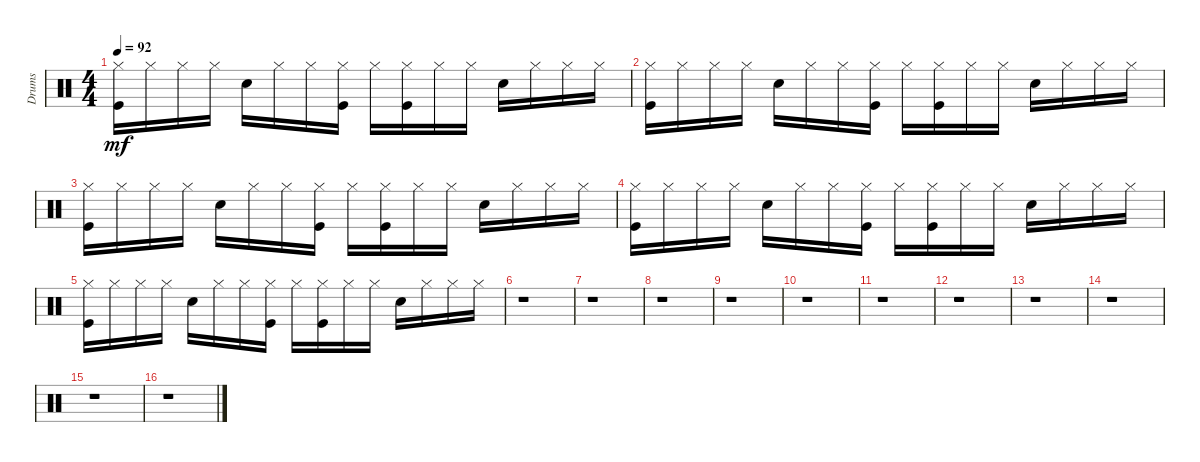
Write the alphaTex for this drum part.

\track ("Drumkit" "Drums") {instrument percussion}
\staff {score}
\articulation defaults
\ts (4 4)
\tempo 92
\clef neutral
\ks c
("Kick (hit)" "Hi-Hat (closed)").16{dy mf} "Hi-Hat (closed)".16 "Hi-Hat (closed)".16 "Hi-Hat (closed)".16 "Snare (hit) 2".16 "Hi-Hat (closed)".16 "Hi-Hat (closed)".16 ("Hi-Hat (closed)" "Kick (hit)").16 "Hi-Hat (closed)".16 ("Hi-Hat (closed)" "Kick (hit)").16 "Hi-Hat (closed)".16 "Hi-Hat (closed)".16 "Snare (hit) 2".16 "Hi-Hat (closed)".16 "Hi-Hat (closed)".16 "Hi-Hat (closed)".16 |
("Kick (hit)" "Hi-Hat (closed)").16 "Hi-Hat (closed)".16 "Hi-Hat (closed)".16 "Hi-Hat (closed)".16 "Snare (hit) 2".16 "Hi-Hat (closed)".16 "Hi-Hat (closed)".16 ("Hi-Hat (closed)" "Kick (hit)").16 "Hi-Hat (closed)".16 ("Hi-Hat (closed)" "Kick (hit)").16 "Hi-Hat (closed)".16 "Hi-Hat (closed)".16 "Snare (hit) 2".16 "Hi-Hat (closed)".16 "Hi-Hat (closed)".16 "Hi-Hat (closed)".16 |
("Kick (hit)" "Hi-Hat (closed)").16 "Hi-Hat (closed)".16 "Hi-Hat (closed)".16 "Hi-Hat (closed)".16 "Snare (hit) 2".16 "Hi-Hat (closed)".16 "Hi-Hat (closed)".16 ("Hi-Hat (closed)" "Kick (hit)").16 "Hi-Hat (closed)".16 ("Hi-Hat (closed)" "Kick (hit)").16 "Hi-Hat (closed)".16 "Hi-Hat (closed)".16 "Snare (hit) 2".16 "Hi-Hat (closed)".16 "Hi-Hat (closed)".16 "Hi-Hat (closed)".16 |
("Kick (hit)" "Hi-Hat (closed)").16 "Hi-Hat (closed)".16 "Hi-Hat (closed)".16 "Hi-Hat (closed)".16 "Snare (hit) 2".16 "Hi-Hat (closed)".16 "Hi-Hat (closed)".16 ("Hi-Hat (closed)" "Kick (hit)").16 "Hi-Hat (closed)".16 ("Hi-Hat (closed)" "Kick (hit)").16 "Hi-Hat (closed)".16 "Hi-Hat (closed)".16 "Snare (hit) 2".16 "Hi-Hat (closed)".16 "Hi-Hat (closed)".16 "Hi-Hat (closed)".16 |
("Kick (hit)" "Hi-Hat (closed)").16 "Hi-Hat (closed)".16 "Hi-Hat (closed)".16 "Hi-Hat (closed)".16 "Snare (hit) 2".16 "Hi-Hat (closed)".16 "Hi-Hat (closed)".16 ("Hi-Hat (closed)" "Kick (hit)").16 "Hi-Hat (closed)".16 ("Hi-Hat (closed)" "Kick (hit)").16 "Hi-Hat (closed)".16 "Hi-Hat (closed)".16 "Snare (hit) 2".16 "Hi-Hat (closed)".16 "Hi-Hat (closed)".16 "Hi-Hat (closed)".16 |
r.1 |
r.1 |
r.1 |
r.1 |
r.1 |
r.1 |
r.1 |
r.1 |
r.1 |
r.1 |
r.1
